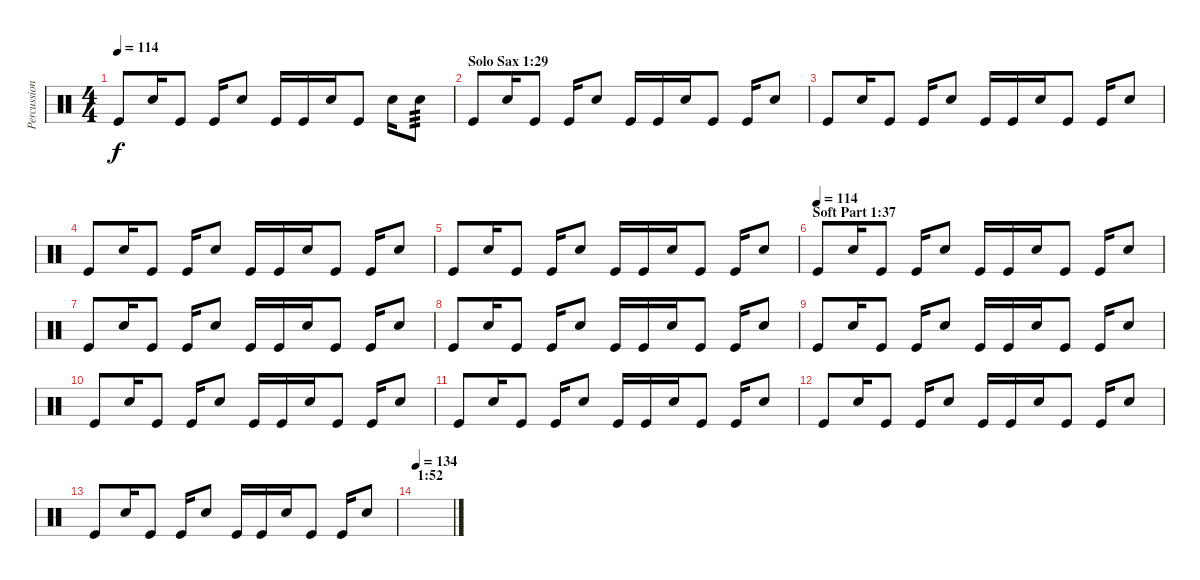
\track ("Percussions" "Percussion") {instrument percussion}
\staff {score}
\articulation defaults
\ts (4 4)
\tempo 114
\clef neutral
\ks c "Kick (hit)".8{dy f} "Electric Snare (hit)".16 "Kick (hit)".8 "Kick (hit)".16 "Electric Snare (hit)".8 "Kick (hit)".16 "Kick (hit)".16 "Electric Snare (hit)".16 "Kick (hit)".8 "Electric Snare (hit)".16 "Electric Snare (hit)".8{tp 3}
|
\section ("" "Solo Sax 1:29")
"Kick (hit)".8 "Electric Snare (hit)".16 "Kick (hit)".8 "Kick (hit)".16 "Electric Snare (hit)".8 "Kick (hit)".16 "Kick (hit)".16 "Electric Snare (hit)".16 "Kick (hit)".8 "Kick (hit)".16 "Electric Snare (hit)".8 |
"Kick (hit)".8 "Electric Snare (hit)".16 "Kick (hit)".8 "Kick (hit)".16 "Electric Snare (hit)".8 "Kick (hit)".16 "Kick (hit)".16 "Electric Snare (hit)".16 "Kick (hit)".8 "Kick (hit)".16 "Electric Snare (hit)".8 |
"Kick (hit)".8 "Electric Snare (hit)".16 "Kick (hit)".8 "Kick (hit)".16 "Electric Snare (hit)".8 "Kick (hit)".16 "Kick (hit)".16 "Electric Snare (hit)".16 "Kick (hit)".8 "Kick (hit)".16 "Electric Snare (hit)".8 |
"Kick (hit)".8 "Electric Snare (hit)".16 "Kick (hit)".8 "Kick (hit)".16 "Electric Snare (hit)".8 "Kick (hit)".16 "Kick (hit)".16 "Electric Snare (hit)".16 "Kick (hit)".8 "Kick (hit)".16 "Electric Snare (hit)".8 |
\section ("" "Soft Part 1:37")
\tempo (114)
"Kick (hit)".8 "Electric Snare (hit)".16 "Kick (hit)".8 "Kick (hit)".16 "Electric Snare (hit)".8 "Kick (hit)".16 "Kick (hit)".16 "Electric Snare (hit)".16 "Kick (hit)".8 "Kick (hit)".16 "Electric Snare (hit)".8 |
"Kick (hit)".8 "Electric Snare (hit)".16 "Kick (hit)".8 "Kick (hit)".16 "Electric Snare (hit)".8 "Kick (hit)".16 "Kick (hit)".16 "Electric Snare (hit)".16 "Kick (hit)".8 "Kick (hit)".16 "Electric Snare (hit)".8 |
"Kick (hit)".8 "Electric Snare (hit)".16 "Kick (hit)".8 "Kick (hit)".16 "Electric Snare (hit)".8 "Kick (hit)".16 "Kick (hit)".16 "Electric Snare (hit)".16 "Kick (hit)".8 "Kick (hit)".16 "Electric Snare (hit)".8 |
"Kick (hit)".8 "Electric Snare (hit)".16 "Kick (hit)".8 "Kick (hit)".16 "Electric Snare (hit)".8 "Kick (hit)".16 "Kick (hit)".16 "Electric Snare (hit)".16 "Kick (hit)".8 "Kick (hit)".16 "Electric Snare (hit)".8 |
"Kick (hit)".8 "Electric Snare (hit)".16 "Kick (hit)".8 "Kick (hit)".16 "Electric Snare (hit)".8 "Kick (hit)".16 "Kick (hit)".16 "Electric Snare (hit)".16 "Kick (hit)".8 "Kick (hit)".16 "Electric Snare (hit)".8 |
"Kick (hit)".8 "Electric Snare (hit)".16 "Kick (hit)".8 "Kick (hit)".16 "Electric Snare (hit)".8 "Kick (hit)".16 "Kick (hit)".16 "Electric Snare (hit)".16 "Kick (hit)".8 "Kick (hit)".16 "Electric Snare (hit)".8 |
"Kick (hit)".8 "Electric Snare (hit)".16 "Kick (hit)".8 "Kick (hit)".16 "Electric Snare (hit)".8 "Kick (hit)".16 "Kick (hit)".16 "Electric Snare (hit)".16 "Kick (hit)".8 "Kick (hit)".16 "Electric Snare (hit)".8 |
"Kick (hit)".8 "Electric Snare (hit)".16 "Kick (hit)".8 "Kick (hit)".16 "Electric Snare (hit)".8 "Kick (hit)".16 "Kick (hit)".16 "Electric Snare (hit)".16 "Kick (hit)".8 "Kick (hit)".16 "Electric Snare (hit)".8 |
\section ("" "1:52")
\tempo 134
